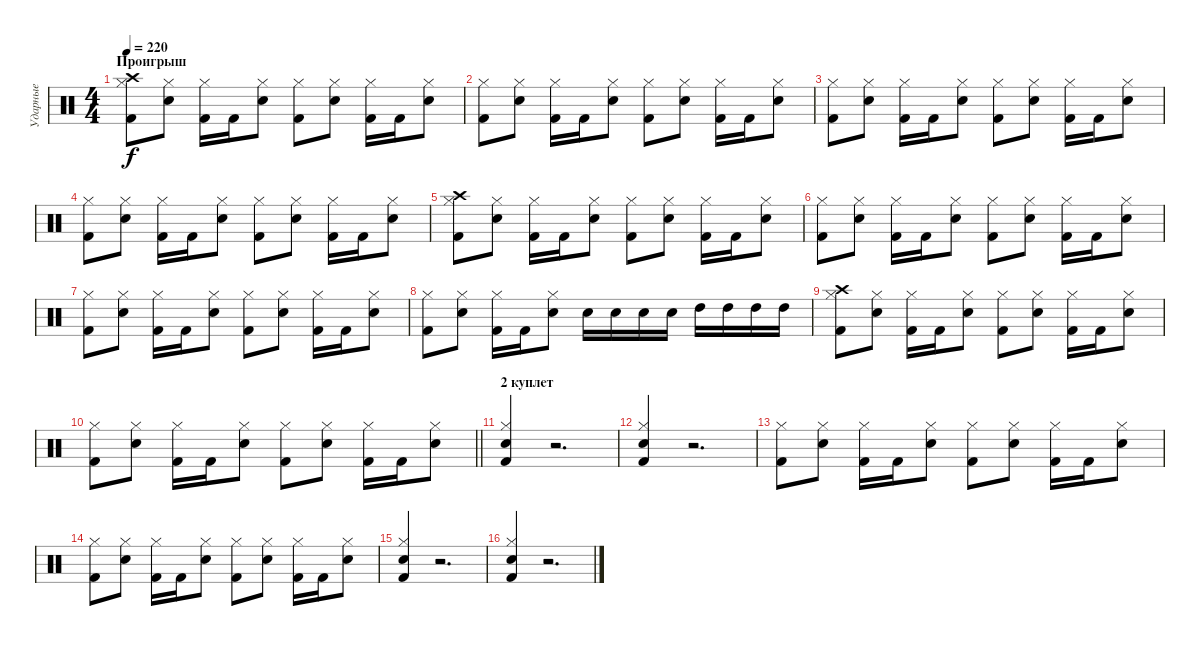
\track ("Ударные" "Ударные") {instrument percussion}
\staff {score}
\articulation defaults
\ts (4 4)
\section ("" "Проигрыш")
\tempo 220
\clef neutral
\ks c
("Kick (hit) 2" "Hi-Hat (closed)" "Crash high (hit)").8{dy f} ("Snare (hit) 2" "Hi-Hat (closed)").8 ("Kick (hit) 2" "Hi-Hat (closed)").16 "Kick (hit) 2".16 ("Snare (hit) 2" "Hi-Hat (closed)").8 ("Kick (hit) 2" "Hi-Hat (closed)").8 ("Snare (hit) 2" "Hi-Hat (closed)").8 ("Kick (hit) 2" "Hi-Hat (closed)").16 "Kick (hit) 2".16 ("Snare (hit) 2" "Hi-Hat (closed)").8 |
("Kick (hit) 2" "Hi-Hat (closed)").8 ("Snare (hit) 2" "Hi-Hat (closed)").8 ("Kick (hit) 2" "Hi-Hat (closed)").16 "Kick (hit) 2".16 ("Snare (hit) 2" "Hi-Hat (closed)").8 ("Kick (hit) 2" "Hi-Hat (closed)").8 ("Snare (hit) 2" "Hi-Hat (closed)").8 ("Kick (hit) 2" "Hi-Hat (closed)").16 "Kick (hit) 2".16 ("Snare (hit) 2" "Hi-Hat (closed)").8 |
("Kick (hit) 2" "Hi-Hat (closed)").8 ("Snare (hit) 2" "Hi-Hat (closed)").8 ("Kick (hit) 2" "Hi-Hat (closed)").16 "Kick (hit) 2".16 ("Snare (hit) 2" "Hi-Hat (closed)").8 ("Kick (hit) 2" "Hi-Hat (closed)").8 ("Snare (hit) 2" "Hi-Hat (closed)").8 ("Kick (hit) 2" "Hi-Hat (closed)").16 "Kick (hit) 2".16 ("Snare (hit) 2" "Hi-Hat (closed)").8 |
("Kick (hit) 2" "Hi-Hat (closed)").8 ("Snare (hit) 2" "Hi-Hat (closed)").8 ("Kick (hit) 2" "Hi-Hat (closed)").16 "Kick (hit) 2".16 ("Snare (hit) 2" "Hi-Hat (closed)").8 ("Kick (hit) 2" "Hi-Hat (closed)").8 ("Snare (hit) 2" "Hi-Hat (closed)").8 ("Kick (hit) 2" "Hi-Hat (closed)").16 "Kick (hit) 2".16 ("Snare (hit) 2" "Hi-Hat (closed)").8 |
("Kick (hit) 2" "Hi-Hat (closed)" "Crash high (hit)").8 ("Snare (hit) 2" "Hi-Hat (closed)").8 ("Kick (hit) 2" "Hi-Hat (closed)").16 "Kick (hit) 2".16 ("Snare (hit) 2" "Hi-Hat (closed)").8 ("Kick (hit) 2" "Hi-Hat (closed)").8 ("Snare (hit) 2" "Hi-Hat (closed)").8 ("Kick (hit) 2" "Hi-Hat (closed)").16 "Kick (hit) 2".16 ("Snare (hit) 2" "Hi-Hat (closed)").8 |
("Kick (hit) 2" "Hi-Hat (closed)").8 ("Snare (hit) 2" "Hi-Hat (closed)").8 ("Kick (hit) 2" "Hi-Hat (closed)").16 "Kick (hit) 2".16 ("Snare (hit) 2" "Hi-Hat (closed)").8 ("Kick (hit) 2" "Hi-Hat (closed)").8 ("Snare (hit) 2" "Hi-Hat (closed)").8 ("Kick (hit) 2" "Hi-Hat (closed)").16 "Kick (hit) 2".16 ("Snare (hit) 2" "Hi-Hat (closed)").8 |
("Kick (hit) 2" "Hi-Hat (closed)").8 ("Snare (hit) 2" "Hi-Hat (closed)").8 ("Kick (hit) 2" "Hi-Hat (closed)").16 "Kick (hit) 2".16 ("Snare (hit) 2" "Hi-Hat (closed)").8 ("Kick (hit) 2" "Hi-Hat (closed)").8 ("Snare (hit) 2" "Hi-Hat (closed)").8 ("Kick (hit) 2" "Hi-Hat (closed)").16 "Kick (hit) 2".16 ("Snare (hit) 2" "Hi-Hat (closed)").8 |
("Kick (hit) 2" "Hi-Hat (closed)").8 ("Snare (hit) 2" "Hi-Hat (closed)").8 ("Kick (hit) 2" "Hi-Hat (closed)").16 "Kick (hit) 2".16 ("Snare (hit) 2" "Hi-Hat (closed)").8 "Snare (hit) 2".16 "Snare (hit) 2".16 "Snare (hit) 2".16 "Snare (hit) 2".16 "High Tom (hit)".16 "High Tom (hit)".16 "High Tom (hit)".16 "High Tom (hit)".16 |
("Kick (hit) 2" "Hi-Hat (closed)" "Crash high (hit)").8 ("Snare (hit) 2" "Hi-Hat (closed)").8 ("Kick (hit) 2" "Hi-Hat (closed)").16 "Kick (hit) 2".16 ("Snare (hit) 2" "Hi-Hat (closed)").8 ("Kick (hit) 2" "Hi-Hat (closed)").8 ("Snare (hit) 2" "Hi-Hat (closed)").8 ("Kick (hit) 2" "Hi-Hat (closed)").16 "Kick (hit) 2".16 ("Snare (hit) 2" "Hi-Hat (closed)").8 |
\barLineRight lightlight
("Kick (hit) 2" "Hi-Hat (closed)").8 ("Snare (hit) 2" "Hi-Hat (closed)").8 ("Kick (hit) 2" "Hi-Hat (closed)").16 "Kick (hit) 2".16 ("Snare (hit) 2" "Hi-Hat (closed)").8 ("Kick (hit) 2" "Hi-Hat (closed)").8 ("Snare (hit) 2" "Hi-Hat (closed)").8 ("Kick (hit) 2" "Hi-Hat (closed)").16 "Kick (hit) 2".16 ("Snare (hit) 2" "Hi-Hat (closed)").8 |
\section ("" "2 куплет")
("Kick (hit) 2" "Snare (hit) 2" "Hi-Hat (closed)").4 r.2{d} |
("Kick (hit) 2" "Snare (hit) 2" "Hi-Hat (closed)").4 r.2{d} |
("Kick (hit) 2" "Hi-Hat (closed)").8 ("Snare (hit) 2" "Hi-Hat (closed)").8 ("Kick (hit) 2" "Hi-Hat (closed)").16 "Kick (hit) 2".16 ("Snare (hit) 2" "Hi-Hat (closed)").8 ("Kick (hit) 2" "Hi-Hat (closed)").8 ("Snare (hit) 2" "Hi-Hat (closed)").8 ("Kick (hit) 2" "Hi-Hat (closed)").16 "Kick (hit) 2".16 ("Snare (hit) 2" "Hi-Hat (closed)").8 |
("Kick (hit) 2" "Hi-Hat (closed)").8 ("Snare (hit) 2" "Hi-Hat (closed)").8 ("Kick (hit) 2" "Hi-Hat (closed)").16 "Kick (hit) 2".16 ("Snare (hit) 2" "Hi-Hat (closed)").8 ("Kick (hit) 2" "Hi-Hat (closed)").8 ("Snare (hit) 2" "Hi-Hat (closed)").8 ("Kick (hit) 2" "Hi-Hat (closed)").16 "Kick (hit) 2".16 ("Snare (hit) 2" "Hi-Hat (closed)").8 |
("Kick (hit) 2" "Snare (hit) 2" "Hi-Hat (closed)").4 r.2{d} |
("Kick (hit) 2" "Snare (hit) 2" "Hi-Hat (closed)").4 r.2{d}
